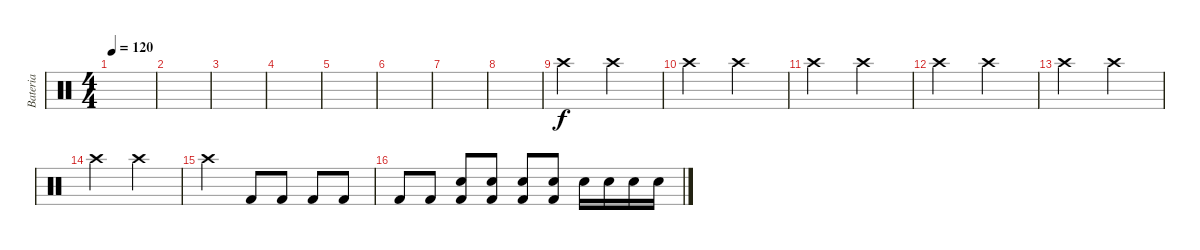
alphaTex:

\track ("Bateria" "Bateria") {instrument percussion}
\staff {score}
\articulation defaults
\ts (4 4)
\tempo 120
\clef neutral
\ks c
|
|
|
|
|
|
|
|
"Crash high (hit)".2 "Crash high (hit)".2 |
"Crash high (hit)".2 "Crash high (hit)".2 |
"Crash high (hit)".2 "Crash high (hit)".2 |
"Crash high (hit)".2 "Crash high (hit)".2 |
"Crash high (hit)".2 "Crash high (hit)".2 |
"Crash high (hit)".2 "Crash high (hit)".2 |
"Crash high (hit)".2 "Kick (hit) 2".8 "Kick (hit) 2".8 "Kick (hit) 2".8 "Kick (hit) 2".8 |
"Kick (hit) 2".8 "Kick (hit) 2".8 ("Snare (hit) 2" "Kick (hit) 2").8 ("Snare (hit) 2" "Kick (hit) 2").8 ("Snare (hit) 2" "Kick (hit) 2").8 ("Snare (hit) 2" "Kick (hit) 2").8 "Snare (hit) 2".16 "Snare (hit) 2".16 "Snare (hit) 2".16 "Snare (hit) 2".16
